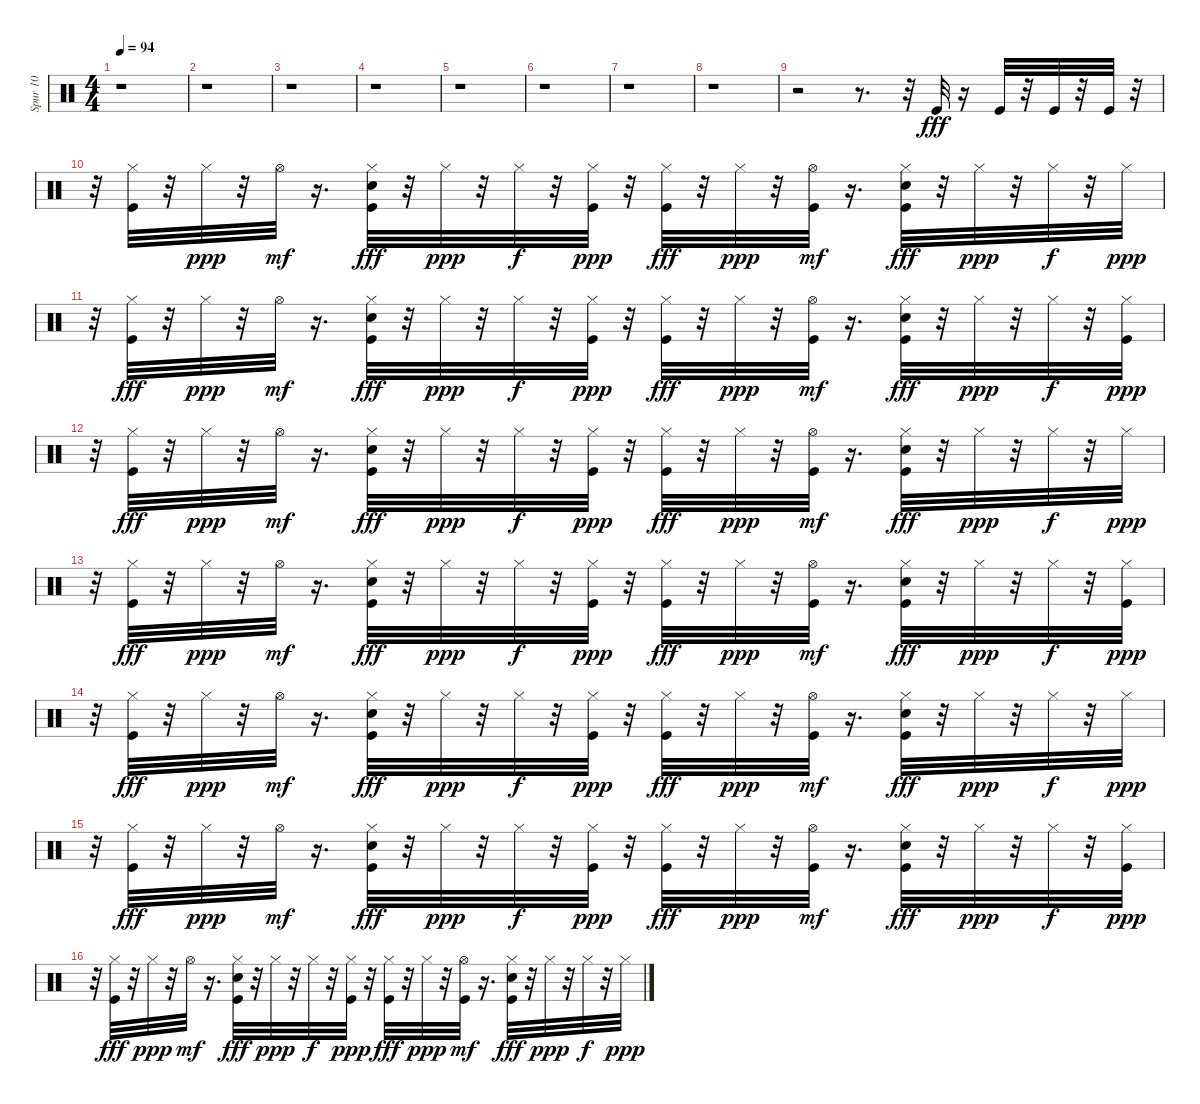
\track ("Spur 10" "Spur 10") {instrument percussion}
\staff {score}
\articulation defaults
\ts (4 4)
\tempo 94
\clef neutral
\ks c
r.1{dy fff} |
r.1 |
r.1 |
r.1 |
r.1 |
r.1 |
r.1 |
r.1 |
r.2 r.8{d} r.32 "Kick (hit)".32 r.16 "Kick (hit)".32 r.32 "Kick (hit)".32 r.32 "Kick (hit)".32 r.32 |
r.32 ("Kick (hit)" "Hi-Hat (closed)").32 r.32 "Hi-Hat (closed)".32{dy ppp} r.32 "Hi-Hat (open)".32{dy mf} r.16{d} ("Kick (hit)" "Electric Snare (hit)" "Hi-Hat (closed)").32{dy fff} r.32 "Hi-Hat (closed)".32{dy ppp} r.32 "Hi-Hat (closed)".32{dy f} r.32 ("Kick (hit)" "Hi-Hat (closed)").32{dy ppp} r.32 ("Kick (hit)" "Hi-Hat (closed)").32{dy fff} r.32 "Hi-Hat (closed)".32{dy ppp} r.32 ("Kick (hit)" "Hi-Hat (open)").32{dy mf} r.16{d} ("Kick (hit)" "Electric Snare (hit)" "Hi-Hat (closed)").32{dy fff} r.32 "Hi-Hat (closed)".32{dy ppp} r.32 "Hi-Hat (closed)".32{dy f} r.32 "Hi-Hat (closed)".32{dy ppp} |
r.32 ("Kick (hit)" "Hi-Hat (closed)").32{dy fff} r.32 "Hi-Hat (closed)".32{dy ppp} r.32 "Hi-Hat (open)".32{dy mf} r.16{d} ("Kick (hit)" "Electric Snare (hit)" "Hi-Hat (closed)").32{dy fff} r.32 "Hi-Hat (closed)".32{dy ppp} r.32 "Hi-Hat (closed)".32{dy f} r.32 ("Kick (hit)" "Hi-Hat (closed)").32{dy ppp} r.32 ("Kick (hit)" "Hi-Hat (closed)").32{dy fff} r.32 "Hi-Hat (closed)".32{dy ppp} r.32 ("Kick (hit)" "Hi-Hat (open)").32{dy mf} r.16{d} ("Kick (hit)" "Electric Snare (hit)" "Hi-Hat (closed)").32{dy fff} r.32 "Hi-Hat (closed)".32{dy ppp} r.32 "Hi-Hat (closed)".32{dy f} r.32 ("Kick (hit)" "Hi-Hat (closed)").32{dy ppp} |
r.32 ("Kick (hit)" "Hi-Hat (closed)").32{dy fff} r.32 "Hi-Hat (closed)".32{dy ppp} r.32 "Hi-Hat (open)".32{dy mf} r.16{d} ("Kick (hit)" "Electric Snare (hit)" "Hi-Hat (closed)").32{dy fff} r.32 "Hi-Hat (closed)".32{dy ppp} r.32 "Hi-Hat (closed)".32{dy f} r.32 ("Kick (hit)" "Hi-Hat (closed)").32{dy ppp} r.32 ("Kick (hit)" "Hi-Hat (closed)").32{dy fff} r.32 "Hi-Hat (closed)".32{dy ppp} r.32 ("Kick (hit)" "Hi-Hat (open)").32{dy mf} r.16{d} ("Kick (hit)" "Electric Snare (hit)" "Hi-Hat (closed)").32{dy fff} r.32 "Hi-Hat (closed)".32{dy ppp} r.32 "Hi-Hat (closed)".32{dy f} r.32 "Hi-Hat (closed)".32{dy ppp} |
r.32 ("Kick (hit)" "Hi-Hat (closed)").32{dy fff} r.32 "Hi-Hat (closed)".32{dy ppp} r.32 "Hi-Hat (open)".32{dy mf} r.16{d} ("Kick (hit)" "Electric Snare (hit)" "Hi-Hat (closed)").32{dy fff} r.32 "Hi-Hat (closed)".32{dy ppp} r.32 "Hi-Hat (closed)".32{dy f} r.32 ("Kick (hit)" "Hi-Hat (closed)").32{dy ppp} r.32 ("Kick (hit)" "Hi-Hat (closed)").32{dy fff} r.32 "Hi-Hat (closed)".32{dy ppp} r.32 ("Kick (hit)" "Hi-Hat (open)").32{dy mf} r.16{d} ("Kick (hit)" "Electric Snare (hit)" "Hi-Hat (closed)").32{dy fff} r.32 "Hi-Hat (closed)".32{dy ppp} r.32 "Hi-Hat (closed)".32{dy f} r.32 ("Kick (hit)" "Hi-Hat (closed)").32{dy ppp} |
r.32 ("Kick (hit)" "Hi-Hat (closed)").32{dy fff} r.32 "Hi-Hat (closed)".32{dy ppp} r.32 "Hi-Hat (open)".32{dy mf} r.16{d} ("Kick (hit)" "Electric Snare (hit)" "Hi-Hat (closed)").32{dy fff} r.32 "Hi-Hat (closed)".32{dy ppp} r.32 "Hi-Hat (closed)".32{dy f} r.32 ("Kick (hit)" "Hi-Hat (closed)").32{dy ppp} r.32 ("Kick (hit)" "Hi-Hat (closed)").32{dy fff} r.32 "Hi-Hat (closed)".32{dy ppp} r.32 ("Kick (hit)" "Hi-Hat (open)").32{dy mf} r.16{d} ("Kick (hit)" "Electric Snare (hit)" "Hi-Hat (closed)").32{dy fff} r.32 "Hi-Hat (closed)".32{dy ppp} r.32 "Hi-Hat (closed)".32{dy f} r.32 "Hi-Hat (closed)".32{dy ppp} |
r.32 ("Kick (hit)" "Hi-Hat (closed)").32{dy fff} r.32 "Hi-Hat (closed)".32{dy ppp} r.32 "Hi-Hat (open)".32{dy mf} r.16{d} ("Kick (hit)" "Electric Snare (hit)" "Hi-Hat (closed)").32{dy fff} r.32 "Hi-Hat (closed)".32{dy ppp} r.32 "Hi-Hat (closed)".32{dy f} r.32 ("Kick (hit)" "Hi-Hat (closed)").32{dy ppp} r.32 ("Kick (hit)" "Hi-Hat (closed)").32{dy fff} r.32 "Hi-Hat (closed)".32{dy ppp} r.32 ("Kick (hit)" "Hi-Hat (open)").32{dy mf} r.16{d} ("Kick (hit)" "Electric Snare (hit)" "Hi-Hat (closed)").32{dy fff} r.32 "Hi-Hat (closed)".32{dy ppp} r.32 "Hi-Hat (closed)".32{dy f} r.32 ("Kick (hit)" "Hi-Hat (closed)").32{dy ppp} |
r.32 ("Kick (hit)" "Hi-Hat (closed)").32{dy fff} r.32 "Hi-Hat (closed)".32{dy ppp} r.32 "Hi-Hat (open)".32{dy mf} r.16{d} ("Kick (hit)" "Electric Snare (hit)" "Hi-Hat (closed)").32{dy fff} r.32 "Hi-Hat (closed)".32{dy ppp} r.32 "Hi-Hat (closed)".32{dy f} r.32 ("Kick (hit)" "Hi-Hat (closed)").32{dy ppp} r.32 ("Kick (hit)" "Hi-Hat (closed)").32{dy fff} r.32 "Hi-Hat (closed)".32{dy ppp} r.32 ("Kick (hit)" "Hi-Hat (open)").32{dy mf} r.16{d} ("Kick (hit)" "Electric Snare (hit)" "Hi-Hat (closed)").32{dy fff} r.32 "Hi-Hat (closed)".32{dy ppp} r.32 "Hi-Hat (closed)".32{dy f} r.32 "Hi-Hat (closed)".32{dy ppp}
